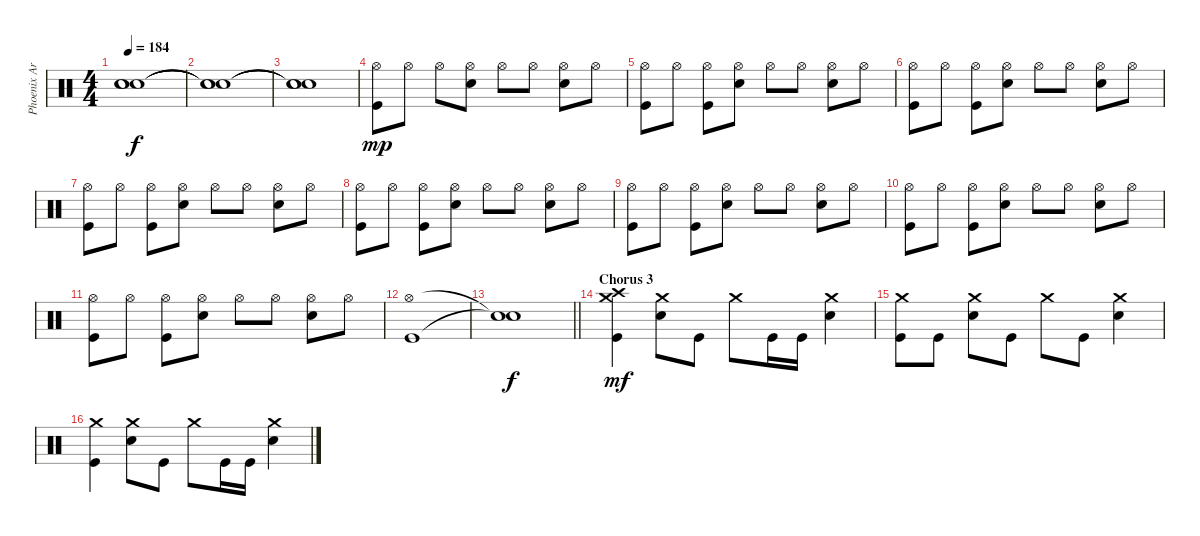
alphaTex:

\track ("Phoenix Arn-Horn (Drums)" "Phoenix Ar") {instrument percussion}
\staff {score}
\articulation defaults
\ts (4 4)
\tempo 184
\clef neutral
\ks c
("Snare (hit)"{t} "Snare (hit)"{t} "Snare (hit)"{t}).1{dy f} |
("Snare (hit)"{t} "Snare (hit)"{t} "Snare (hit)"{t}).1 |
("Snare (hit)"{t} "Snare (hit)"{t} "Snare (hit)"{t}).1 |
("Kick (hit)" "Hi-Hat (open)").8{dy mp} "Hi-Hat (open)".8 "Hi-Hat (open)".8 ("Hi-Hat (open)" "Snare (hit) 2").8 "Hi-Hat (open)".8 "Hi-Hat (open)".8 ("Hi-Hat (open)" "Snare (hit) 2").8 "Hi-Hat (open)".8 |
("Kick (hit)" "Hi-Hat (open)").8 "Hi-Hat (open)".8 ("Hi-Hat (open)" "Kick (hit)").8 ("Hi-Hat (open)" "Snare (hit) 2").8 "Hi-Hat (open)".8 "Hi-Hat (open)".8 ("Hi-Hat (open)" "Snare (hit) 2").8 "Hi-Hat (open)".8 |
("Kick (hit)" "Hi-Hat (open)").8 "Hi-Hat (open)".8 ("Hi-Hat (open)" "Kick (hit)").8 ("Hi-Hat (open)" "Snare (hit) 2").8 "Hi-Hat (open)".8 "Hi-Hat (open)".8 ("Hi-Hat (open)" "Snare (hit) 2").8 "Hi-Hat (open)".8 |
("Kick (hit)" "Hi-Hat (open)").8 "Hi-Hat (open)".8 ("Hi-Hat (open)" "Kick (hit)").8 ("Hi-Hat (open)" "Snare (hit) 2").8 "Hi-Hat (open)".8 "Hi-Hat (open)".8 ("Hi-Hat (open)" "Snare (hit) 2").8 "Hi-Hat (open)".8 |
("Kick (hit)" "Hi-Hat (open)").8 "Hi-Hat (open)".8 ("Hi-Hat (open)" "Kick (hit)").8 ("Hi-Hat (open)" "Snare (hit) 2").8 "Hi-Hat (open)".8 "Hi-Hat (open)".8 ("Hi-Hat (open)" "Snare (hit) 2").8 "Hi-Hat (open)".8 |
("Kick (hit)" "Hi-Hat (open)").8 "Hi-Hat (open)".8 ("Hi-Hat (open)" "Kick (hit)").8 ("Hi-Hat (open)" "Snare (hit) 2").8 "Hi-Hat (open)".8 "Hi-Hat (open)".8 ("Hi-Hat (open)" "Snare (hit) 2").8 "Hi-Hat (open)".8 |
("Kick (hit)" "Hi-Hat (open)").8 "Hi-Hat (open)".8 ("Hi-Hat (open)" "Kick (hit)").8 ("Hi-Hat (open)" "Snare (hit) 2").8 "Hi-Hat (open)".8 "Hi-Hat (open)".8 ("Hi-Hat (open)" "Snare (hit) 2").8 "Hi-Hat (open)".8 |
("Kick (hit)" "Hi-Hat (open)").8 "Hi-Hat (open)".8 ("Hi-Hat (open)" "Kick (hit)").8 ("Hi-Hat (open)" "Snare (hit) 2").8 "Hi-Hat (open)".8 "Hi-Hat (open)".8 ("Hi-Hat (open)" "Snare (hit) 2").8 "Hi-Hat (open)".8 |
("Kick (hit)" "Hi-Hat (open)").1 |
\barLineRight lightlight
("Snare (hit)"{t} "Snare (hit)"{t}).1{dy f} |
\section ("" "Chorus 3")
("Kick (hit)" "Crash medium (hit)" "Crash high (hit)").4{dy mf} ("Snare (hit) 2" "Crash medium (hit)").8 "Kick (hit)".8 "Crash medium (hit)".8 "Kick (hit)".16 "Kick (hit)".16 ("Snare (hit) 2" "Crash medium (hit)").4 |
("Kick (hit)" "Crash medium (hit)").8 "Kick (hit)".8 ("Snare (hit) 2" "Crash medium (hit)").8 "Kick (hit)".8 "Crash medium (hit)".8 "Kick (hit)".8 ("Snare (hit) 2" "Crash medium (hit)").4 |
("Kick (hit)" "Crash medium (hit)").4 ("Snare (hit) 2" "Crash medium (hit)").8 "Kick (hit)".8 "Crash medium (hit)".8 "Kick (hit)".16 "Kick (hit)".16 ("Snare (hit) 2" "Crash medium (hit)").4
